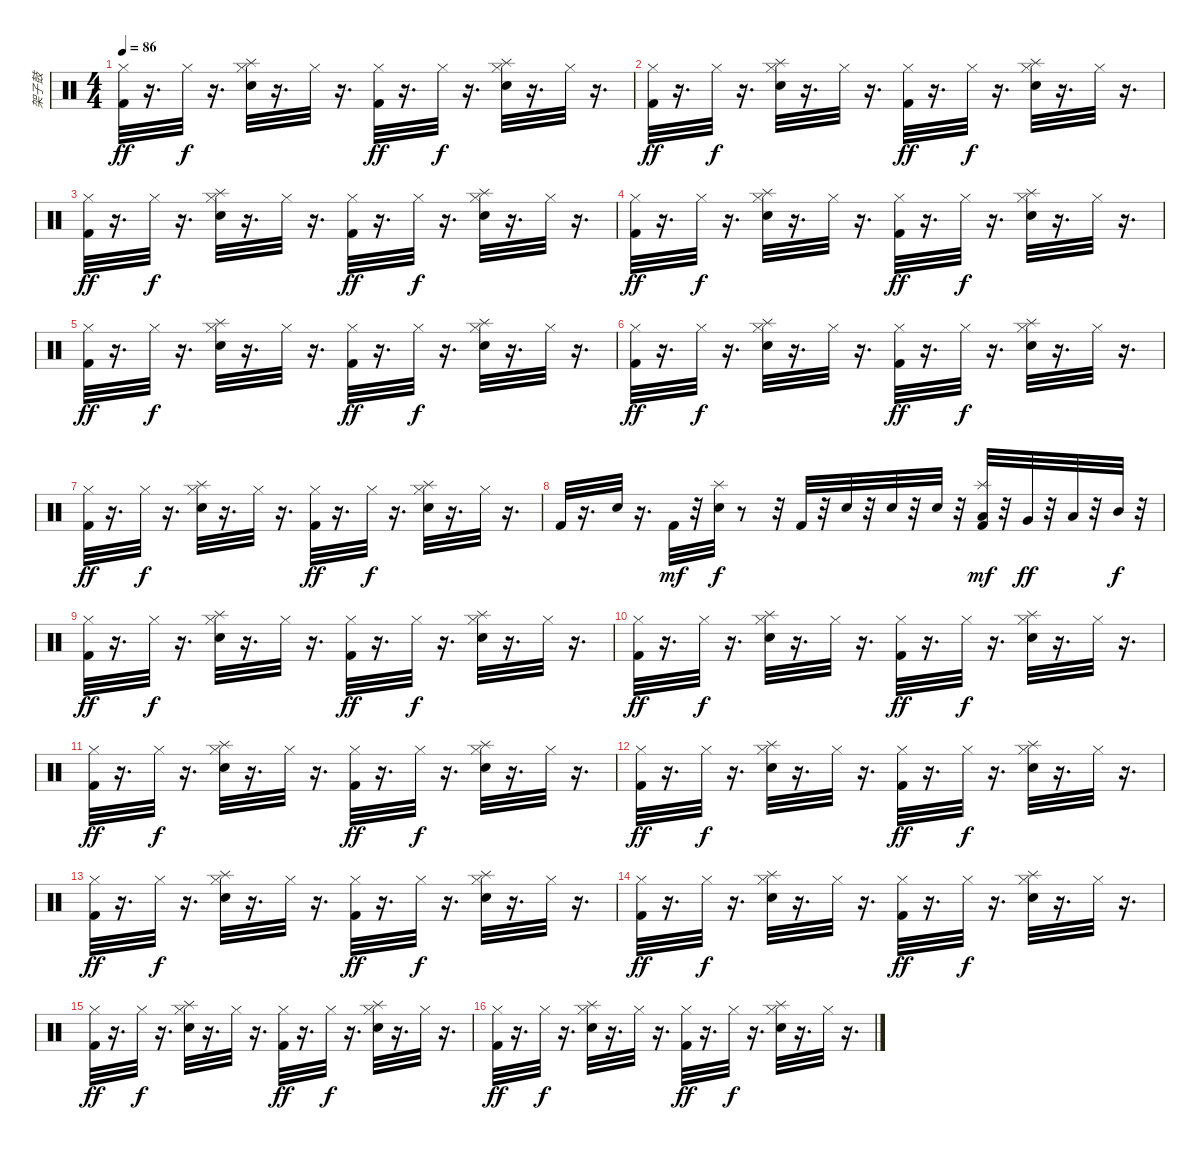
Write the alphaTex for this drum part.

\track ("架子鼓" "架子鼓") {instrument percussion}
\staff {score}
\articulation defaults
\ts (4 4)
\tempo 86
\clef neutral
\ks c
("Hi-Hat (closed)" "Kick (hit) 2").32{dy ff} r.16{d} "Hi-Hat (closed)".32{dy f} r.16{d} ("Splash (hit)" "Hi-Hat (closed)" "Electric Snare (hit)").32 r.16{d} "Hi-Hat (closed)".32 r.16{d} ("Hi-Hat (closed)" "Kick (hit) 2").32{dy ff} r.16{d} "Hi-Hat (closed)".32{dy f} r.16{d} ("Splash (hit)" "Hi-Hat (closed)" "Electric Snare (hit)").32 r.16{d} "Hi-Hat (closed)".32 r.16{d} |
("Hi-Hat (closed)" "Kick (hit) 2").32{dy ff} r.16{d} "Hi-Hat (closed)".32{dy f} r.16{d} ("Splash (hit)" "Hi-Hat (closed)" "Electric Snare (hit)").32 r.16{d} "Hi-Hat (closed)".32 r.16{d} ("Hi-Hat (closed)" "Kick (hit) 2").32{dy ff} r.16{d} "Hi-Hat (closed)".32{dy f} r.16{d} ("Splash (hit)" "Hi-Hat (closed)" "Electric Snare (hit)").32 r.16{d} "Hi-Hat (closed)".32 r.16{d} |
("Hi-Hat (closed)" "Kick (hit) 2").32{dy ff} r.16{d} "Hi-Hat (closed)".32{dy f} r.16{d} ("Splash (hit)" "Hi-Hat (closed)" "Electric Snare (hit)").32 r.16{d} "Hi-Hat (closed)".32 r.16{d} ("Hi-Hat (closed)" "Kick (hit) 2").32{dy ff} r.16{d} "Hi-Hat (closed)".32{dy f} r.16{d} ("Splash (hit)" "Hi-Hat (closed)" "Electric Snare (hit)").32 r.16{d} "Hi-Hat (closed)".32 r.16{d} |
("Hi-Hat (closed)" "Kick (hit) 2").32{dy ff} r.16{d} "Hi-Hat (closed)".32{dy f} r.16{d} ("Splash (hit)" "Hi-Hat (closed)" "Electric Snare (hit)").32 r.16{d} "Hi-Hat (closed)".32 r.16{d} ("Hi-Hat (closed)" "Kick (hit) 2").32{dy ff} r.16{d} "Hi-Hat (closed)".32{dy f} r.16{d} ("Splash (hit)" "Hi-Hat (closed)" "Electric Snare (hit)").32 r.16{d} "Hi-Hat (closed)".32 r.16{d} |
("Hi-Hat (closed)" "Kick (hit) 2").32{dy ff} r.16{d} "Hi-Hat (closed)".32{dy f} r.16{d} ("Splash (hit)" "Hi-Hat (closed)" "Electric Snare (hit)").32 r.16{d} "Hi-Hat (closed)".32 r.16{d} ("Hi-Hat (closed)" "Kick (hit) 2").32{dy ff} r.16{d} "Hi-Hat (closed)".32{dy f} r.16{d} ("Splash (hit)" "Hi-Hat (closed)" "Electric Snare (hit)").32 r.16{d} "Hi-Hat (closed)".32 r.16{d} |
("Hi-Hat (closed)" "Kick (hit) 2").32{dy ff} r.16{d} "Hi-Hat (closed)".32{dy f} r.16{d} ("Splash (hit)" "Hi-Hat (closed)" "Electric Snare (hit)").32 r.16{d} "Hi-Hat (closed)".32 r.16{d} ("Hi-Hat (closed)" "Kick (hit) 2").32{dy ff} r.16{d} "Hi-Hat (closed)".32{dy f} r.16{d} ("Splash (hit)" "Hi-Hat (closed)" "Electric Snare (hit)").32 r.16{d} "Hi-Hat (closed)".32 r.16{d} |
("Hi-Hat (closed)" "Kick (hit) 2").32{dy ff} r.16{d} "Hi-Hat (closed)".32{dy f} r.16{d} ("Splash (hit)" "Hi-Hat (closed)" "Electric Snare (hit)").32 r.16{d} "Hi-Hat (closed)".32 r.16{d} ("Hi-Hat (closed)" "Kick (hit) 2").32{dy ff} r.16{d} "Hi-Hat (closed)".32{dy f} r.16{d} ("Splash (hit)" "Hi-Hat (closed)" "Electric Snare (hit)").32 r.16{d} "Hi-Hat (closed)".32 r.16{d} |
"Kick (hit) 2".32 r.16{d} "Electric Snare (hit)".32 r.16{d} "Kick (hit) 2".32{dy mf} r.32 ("Splash (hit)" "Electric Snare (hit)").32{dy f} r.8 r.32 "Kick (hit) 2".32 r.32 "Electric Snare (hit)".32 r.32 "Electric Snare (hit)".32 r.32 "Electric Snare (hit)".32 r.32 ("Splash (hit)" "Low Floor Tom (hit)" "Kick (hit) 2").32{dy mf} r.32 "Very Low Tom (hit)".32{dy ff} r.32 "Low Tom (hit)".32 r.32 "Mid Tom (hit)".32{dy f} r.32 |
("Hi-Hat (closed)" "Kick (hit) 2").32{dy ff} r.16{d} "Hi-Hat (closed)".32{dy f} r.16{d} ("Splash (hit)" "Hi-Hat (closed)" "Electric Snare (hit)").32 r.16{d} "Hi-Hat (closed)".32 r.16{d} ("Hi-Hat (closed)" "Kick (hit) 2").32{dy ff} r.16{d} "Hi-Hat (closed)".32{dy f} r.16{d} ("Splash (hit)" "Hi-Hat (closed)" "Electric Snare (hit)").32 r.16{d} "Hi-Hat (closed)".32 r.16{d} |
("Hi-Hat (closed)" "Kick (hit) 2").32{dy ff} r.16{d} "Hi-Hat (closed)".32{dy f} r.16{d} ("Splash (hit)" "Hi-Hat (closed)" "Electric Snare (hit)").32 r.16{d} "Hi-Hat (closed)".32 r.16{d} ("Hi-Hat (closed)" "Kick (hit) 2").32{dy ff} r.16{d} "Hi-Hat (closed)".32{dy f} r.16{d} ("Splash (hit)" "Hi-Hat (closed)" "Electric Snare (hit)").32 r.16{d} "Hi-Hat (closed)".32 r.16{d} |
("Hi-Hat (closed)" "Kick (hit) 2").32{dy ff} r.16{d} "Hi-Hat (closed)".32{dy f} r.16{d} ("Splash (hit)" "Hi-Hat (closed)" "Electric Snare (hit)").32 r.16{d} "Hi-Hat (closed)".32 r.16{d} ("Hi-Hat (closed)" "Kick (hit) 2").32{dy ff} r.16{d} "Hi-Hat (closed)".32{dy f} r.16{d} ("Splash (hit)" "Hi-Hat (closed)" "Electric Snare (hit)").32 r.16{d} "Hi-Hat (closed)".32 r.16{d} |
("Hi-Hat (closed)" "Kick (hit) 2").32{dy ff} r.16{d} "Hi-Hat (closed)".32{dy f} r.16{d} ("Splash (hit)" "Hi-Hat (closed)" "Electric Snare (hit)").32 r.16{d} "Hi-Hat (closed)".32 r.16{d} ("Hi-Hat (closed)" "Kick (hit) 2").32{dy ff} r.16{d} "Hi-Hat (closed)".32{dy f} r.16{d} ("Splash (hit)" "Hi-Hat (closed)" "Electric Snare (hit)").32 r.16{d} "Hi-Hat (closed)".32 r.16{d} |
("Hi-Hat (closed)" "Kick (hit) 2").32{dy ff} r.16{d} "Hi-Hat (closed)".32{dy f} r.16{d} ("Splash (hit)" "Hi-Hat (closed)" "Electric Snare (hit)").32 r.16{d} "Hi-Hat (closed)".32 r.16{d} ("Hi-Hat (closed)" "Kick (hit) 2").32{dy ff} r.16{d} "Hi-Hat (closed)".32{dy f} r.16{d} ("Splash (hit)" "Hi-Hat (closed)" "Electric Snare (hit)").32 r.16{d} "Hi-Hat (closed)".32 r.16{d} |
("Hi-Hat (closed)" "Kick (hit) 2").32{dy ff} r.16{d} "Hi-Hat (closed)".32{dy f} r.16{d} ("Splash (hit)" "Hi-Hat (closed)" "Electric Snare (hit)").32 r.16{d} "Hi-Hat (closed)".32 r.16{d} ("Hi-Hat (closed)" "Kick (hit) 2").32{dy ff} r.16{d} "Hi-Hat (closed)".32{dy f} r.16{d} ("Splash (hit)" "Hi-Hat (closed)" "Electric Snare (hit)").32 r.16{d} "Hi-Hat (closed)".32 r.16{d} |
("Hi-Hat (closed)" "Kick (hit) 2").32{dy ff} r.16{d} "Hi-Hat (closed)".32{dy f} r.16{d} ("Splash (hit)" "Hi-Hat (closed)" "Electric Snare (hit)").32 r.16{d} "Hi-Hat (closed)".32 r.16{d} ("Hi-Hat (closed)" "Kick (hit) 2").32{dy ff} r.16{d} "Hi-Hat (closed)".32{dy f} r.16{d} ("Splash (hit)" "Hi-Hat (closed)" "Electric Snare (hit)").32 r.16{d} "Hi-Hat (closed)".32 r.16{d} |
("Hi-Hat (closed)" "Kick (hit) 2").32{dy ff} r.16{d} "Hi-Hat (closed)".32{dy f} r.16{d} ("Splash (hit)" "Hi-Hat (closed)" "Electric Snare (hit)").32 r.16{d} "Hi-Hat (closed)".32 r.16{d} ("Hi-Hat (closed)" "Kick (hit) 2").32{dy ff} r.16{d} "Hi-Hat (closed)".32{dy f} r.16{d} ("Splash (hit)" "Hi-Hat (closed)" "Electric Snare (hit)").32 r.16{d} "Hi-Hat (closed)".32 r.16{d}
